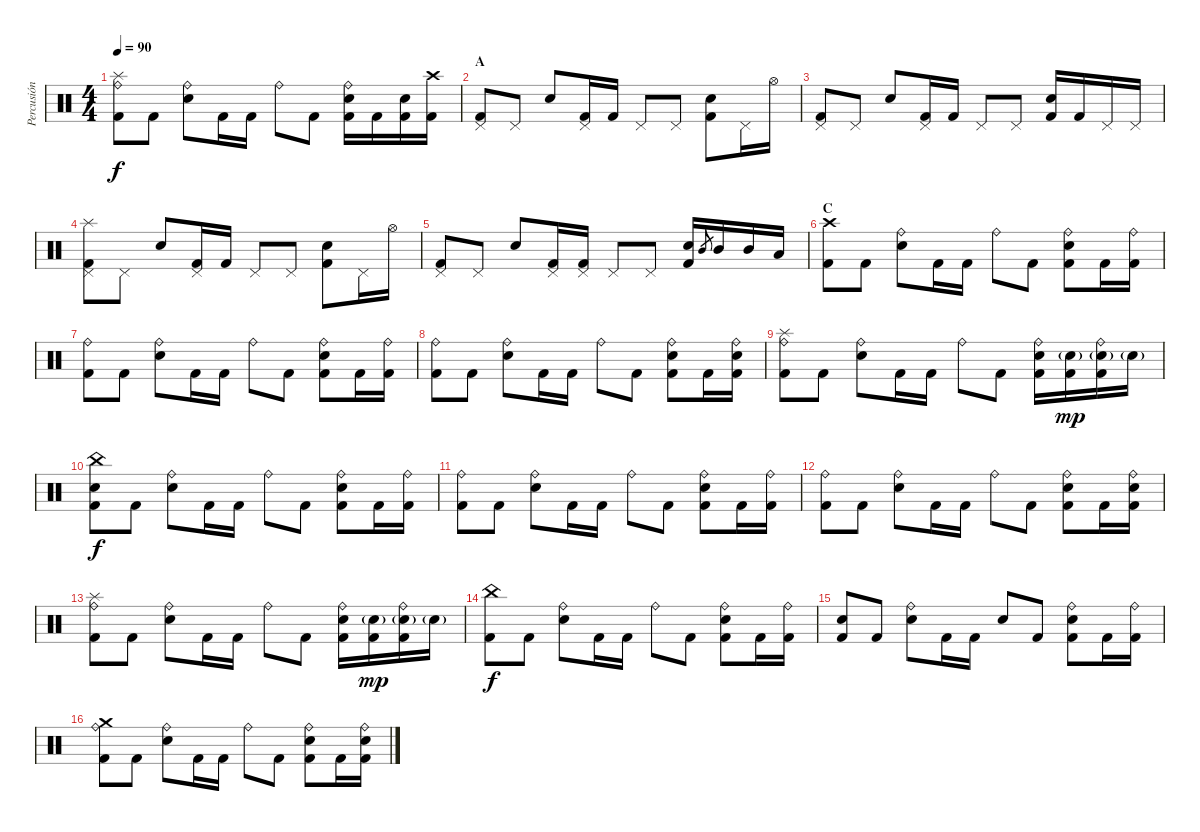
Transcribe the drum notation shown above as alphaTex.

\track ("Percusión" "Percusión") {instrument percussion}
\staff {score}
\articulation defaults
\ts (4 4)
\tempo 90
\clef neutral
\ks c
("Splash (hit)" "Ride (bell)" "Kick (hit) 2").8{dy f} "Kick (hit) 2".8 ("Ride (bell)" "Electric Snare (hit)").8 "Kick (hit) 2".16 "Kick (hit) 2".16 "Ride (bell)".8 "Kick (hit) 2".8 ("Ride (bell)" "Electric Snare (hit)" "Kick (hit) 2").16 "Kick (hit) 2".16 ("Electric Snare (hit)" "Kick (hit) 2").16 ("Crash high (hit)" "Kick (hit) 2").16 |
\section ("" "A")
("Pedal Hi-Hat (hit)" "Kick (hit) 2").8 "Pedal Hi-Hat (hit)".8 "Electric Snare (hit)".8 ("Pedal Hi-Hat (hit)" "Kick (hit) 2").16 "Kick (hit) 2".16 "Pedal Hi-Hat (hit)".8 "Pedal Hi-Hat (hit)".8 ("Electric Snare (hit)" "Kick (hit) 2").8 "Pedal Hi-Hat (hit)".16 "Hi-Hat (open)".16 |
("Pedal Hi-Hat (hit)" "Kick (hit) 2").8 "Pedal Hi-Hat (hit)".8 "Electric Snare (hit)".8 ("Pedal Hi-Hat (hit)" "Kick (hit) 2").16 "Kick (hit) 2".16 "Pedal Hi-Hat (hit)".8 "Pedal Hi-Hat (hit)".8 ("Electric Snare (hit)" "Kick (hit) 2").16 "Kick (hit) 2".16 "Pedal Hi-Hat (hit)".16 "Pedal Hi-Hat (hit)".16 |
("Splash (hit)" "Pedal Hi-Hat (hit)" "Kick (hit) 2").8 "Pedal Hi-Hat (hit)".8 "Electric Snare (hit)".8 ("Pedal Hi-Hat (hit)" "Kick (hit) 2").16 "Kick (hit) 2".16 "Pedal Hi-Hat (hit)".8 "Pedal Hi-Hat (hit)".8 ("Electric Snare (hit)" "Kick (hit) 2").8 "Pedal Hi-Hat (hit)".16 "Hi-Hat (open)".16 |
("Pedal Hi-Hat (hit)" "Kick (hit) 2").8 "Pedal Hi-Hat (hit)".8 "Electric Snare (hit)".8 ("Pedal Hi-Hat (hit)" "Kick (hit) 2").16 ("Pedal Hi-Hat (hit)" "Kick (hit) 2").16 "Pedal Hi-Hat (hit)".8 "Pedal Hi-Hat (hit)".8 ("Electric Snare (hit)" "Kick (hit) 2").16 "Mid Tom (hit)".8{gr} "Mid Tom (hit)".16 "Mid Tom (hit)".16 "Low Tom (hit)".16 |
\section ("" "C")
("Crash high (hit)" "Kick (hit) 2").8 "Kick (hit) 2".8 ("Ride (bell)" "Electric Snare (hit)").8 "Kick (hit) 2".16 "Kick (hit) 2".16 "Ride (bell)".8 "Kick (hit) 2".8 ("Ride (bell)" "Electric Snare (hit)" "Kick (hit) 2").8 "Kick (hit) 2".16 ("Ride (bell)" "Kick (hit) 2").16 |
("Ride (bell)" "Kick (hit) 2").8 "Kick (hit) 2".8 ("Ride (bell)" "Electric Snare (hit)").8 "Kick (hit) 2".16 "Kick (hit) 2".16 "Ride (bell)".8 "Kick (hit) 2".8 ("Ride (bell)" "Electric Snare (hit)" "Kick (hit) 2").8 "Kick (hit) 2".16 ("Ride (bell)" "Kick (hit) 2").16 |
("Ride (bell)" "Kick (hit) 2").8 "Kick (hit) 2".8 ("Ride (bell)" "Electric Snare (hit)").8 "Kick (hit) 2".16 "Kick (hit) 2".16 "Ride (bell)".8 "Kick (hit) 2".8 ("Ride (bell)" "Electric Snare (hit)" "Kick (hit) 2").8 "Kick (hit) 2".16 ("Ride (bell)" "Electric Snare (hit)" "Kick (hit) 2").16 |
("Splash (hit)" "Ride (bell)" "Kick (hit) 2").8 "Kick (hit) 2".8 ("Ride (bell)" "Electric Snare (hit)").8 "Kick (hit) 2".16 "Kick (hit) 2".16 "Ride (bell)".8 "Kick (hit) 2".8 ("Ride (bell)" "Electric Snare (hit)" "Kick (hit) 2").16 ("Electric Snare (hit)"{g} "Kick (hit) 2").16{dy mp} ("Ride (bell)" "Electric Snare (hit)"{g} "Kick (hit) 2").16 "Electric Snare (hit)"{g}.16 |
("China (hit)" "Electric Snare (hit)" "Kick (hit) 2").8{dy f} "Kick (hit) 2".8 ("Ride (bell)" "Electric Snare (hit)").8 "Kick (hit) 2".16 "Kick (hit) 2".16 "Ride (bell)".8 "Kick (hit) 2".8 ("Ride (bell)" "Electric Snare (hit)" "Kick (hit) 2").8 "Kick (hit) 2".16 ("Ride (bell)" "Kick (hit) 2").16 |
("Ride (bell)" "Kick (hit) 2").8 "Kick (hit) 2".8 ("Ride (bell)" "Electric Snare (hit)").8 "Kick (hit) 2".16 "Kick (hit) 2".16 "Ride (bell)".8 "Kick (hit) 2".8 ("Ride (bell)" "Electric Snare (hit)" "Kick (hit) 2").8 "Kick (hit) 2".16 ("Ride (bell)" "Kick (hit) 2").16 |
("Ride (bell)" "Kick (hit) 2").8 "Kick (hit) 2".8 ("Ride (bell)" "Electric Snare (hit)").8 "Kick (hit) 2".16 "Kick (hit) 2".16 "Ride (bell)".8 "Kick (hit) 2".8 ("Ride (bell)" "Electric Snare (hit)" "Kick (hit) 2").8 "Kick (hit) 2".16 ("Ride (bell)" "Electric Snare (hit)" "Kick (hit) 2").16 |
("Splash (hit)" "Ride (bell)" "Kick (hit) 2").8 "Kick (hit) 2".8 ("Ride (bell)" "Electric Snare (hit)").8 "Kick (hit) 2".16 "Kick (hit) 2".16 "Ride (bell)".8 "Kick (hit) 2".8 ("Ride (bell)" "Electric Snare (hit)" "Kick (hit) 2").16 ("Electric Snare (hit)"{g} "Kick (hit) 2").16{dy mp} ("Ride (bell)" "Electric Snare (hit)"{g} "Kick (hit) 2").16 "Electric Snare (hit)"{g}.16 |
("China (hit)" "Kick (hit) 2").8{dy f} "Kick (hit) 2".8 ("Ride (bell)" "Electric Snare (hit)").8 "Kick (hit) 2".16 "Kick (hit) 2".16 "Ride (bell)".8 "Kick (hit) 2".8 ("Ride (bell)" "Electric Snare (hit)" "Kick (hit) 2").8 "Kick (hit) 2".16 ("Ride (bell)" "Kick (hit) 2").16 |
("Electric Snare (hit)" "Kick (hit) 2").8 "Kick (hit) 2".8 ("Ride (bell)" "Electric Snare (hit)").8 "Kick (hit) 2".16 "Kick (hit) 2".16 "Electric Snare (hit)".8 "Kick (hit) 2".8 ("Ride (bell)" "Electric Snare (hit)" "Kick (hit) 2").8 "Kick (hit) 2".16 ("Ride (bell)" "Kick (hit) 2").16 |
("Crash medium (hit)" "Ride (bell)" "Kick (hit) 2").8 "Kick (hit) 2".8 ("Ride (bell)" "Electric Snare (hit)").8 "Kick (hit) 2".16 "Kick (hit) 2".16 "Ride (bell)".8 "Kick (hit) 2".8 ("Ride (bell)" "Electric Snare (hit)" "Kick (hit) 2").8 "Kick (hit) 2".16 ("Ride (bell)" "Electric Snare (hit)" "Kick (hit) 2").16
